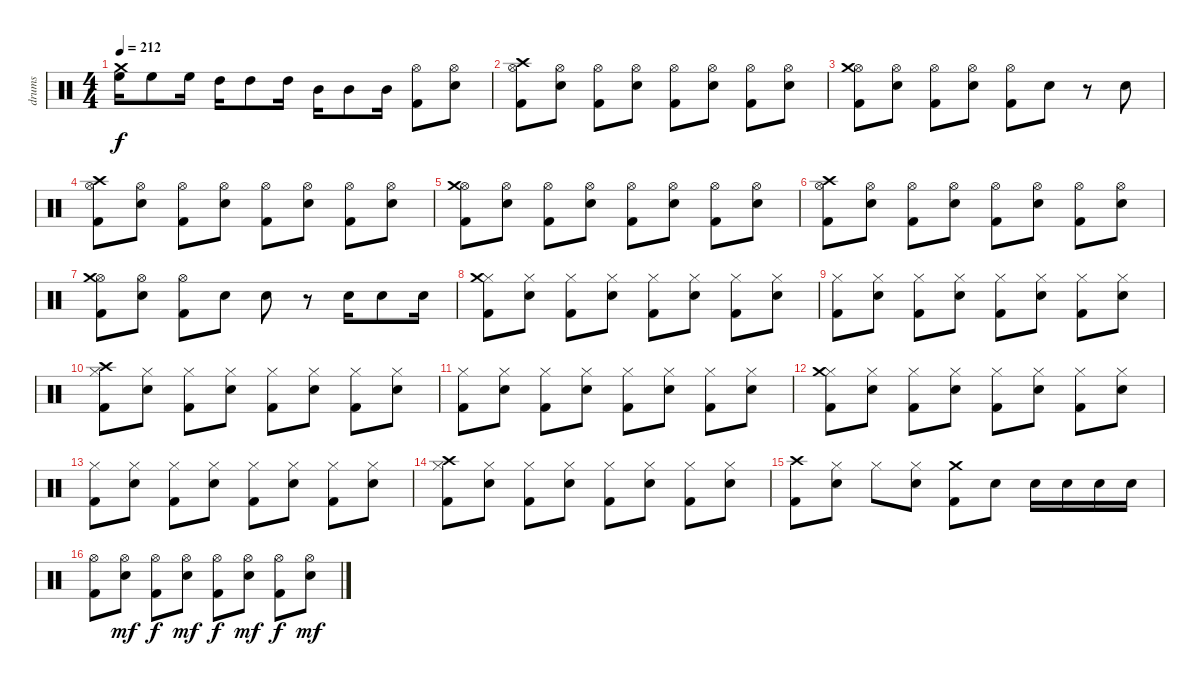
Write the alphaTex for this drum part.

\track ("drums" "drums") {instrument percussion}
\staff {score}
\articulation defaults
\ts (4 4)
\tempo 212
\clef neutral
\ks c
("High Floor Tom (hit)" "Crash medium (hit)").16{dy f} "High Floor Tom (hit)".8 "High Floor Tom (hit)".16 "High Tom (hit)".16 "High Tom (hit)".8 "High Tom (hit)".16 "Mid Tom (hit)".16 "Mid Tom (hit)".8 "Mid Tom (hit)".16 ("Kick (hit) 2" "Hi-Hat (open)").8 ("Snare (hit) 2" "Hi-Hat (open)").8 |
("Kick (hit) 2" "Hi-Hat (open)" "Crash high (hit)").8 ("Snare (hit) 2" "Hi-Hat (open)").8 ("Kick (hit) 2" "Hi-Hat (open)").8 ("Snare (hit) 2" "Hi-Hat (open)").8 ("Kick (hit) 2" "Hi-Hat (open)").8 ("Snare (hit) 2" "Hi-Hat (open)").8 ("Kick (hit) 2" "Hi-Hat (open)").8 ("Snare (hit) 2" "Hi-Hat (open)").8 |
("Kick (hit) 2" "Hi-Hat (open)" "Crash medium (hit)").8 ("Snare (hit) 2" "Hi-Hat (open)").8 ("Kick (hit) 2" "Hi-Hat (open)").8 ("Snare (hit) 2" "Hi-Hat (open)").8 ("Kick (hit) 2" "Hi-Hat (open)").8 "Snare (hit) 2".8 r.8 "Snare (hit) 2".8 |
("Kick (hit) 2" "Hi-Hat (open)" "Crash high (hit)").8 ("Snare (hit) 2" "Hi-Hat (open)").8 ("Kick (hit) 2" "Hi-Hat (open)").8 ("Snare (hit) 2" "Hi-Hat (open)").8 ("Kick (hit) 2" "Hi-Hat (open)").8 ("Snare (hit) 2" "Hi-Hat (open)").8 ("Kick (hit) 2" "Hi-Hat (open)").8 ("Snare (hit) 2" "Hi-Hat (open)").8 |
("Kick (hit) 2" "Hi-Hat (open)" "Crash medium (hit)").8 ("Snare (hit) 2" "Hi-Hat (open)").8 ("Kick (hit) 2" "Hi-Hat (open)").8 ("Snare (hit) 2" "Hi-Hat (open)").8 ("Kick (hit) 2" "Hi-Hat (open)").8 ("Snare (hit) 2" "Hi-Hat (open)").8 ("Kick (hit) 2" "Hi-Hat (open)").8 ("Snare (hit) 2" "Hi-Hat (open)").8 |
("Kick (hit) 2" "Hi-Hat (open)" "Crash high (hit)").8 ("Snare (hit) 2" "Hi-Hat (open)").8 ("Kick (hit) 2" "Hi-Hat (open)").8 ("Snare (hit) 2" "Hi-Hat (open)").8 ("Kick (hit) 2" "Hi-Hat (open)").8 ("Snare (hit) 2" "Hi-Hat (open)").8 ("Kick (hit) 2" "Hi-Hat (open)").8 ("Snare (hit) 2" "Hi-Hat (open)").8 |
("Kick (hit) 2" "Hi-Hat (open)" "Crash medium (hit)").8 ("Snare (hit) 2" "Hi-Hat (open)").8 ("Kick (hit) 2" "Hi-Hat (open)").8 "Snare (hit) 2".8 "Snare (hit) 2".8 r.8 "Snare (hit) 2".16 "Snare (hit) 2".8 "Snare (hit) 2".16 |
("Kick (hit) 2" "Hi-Hat (closed)" "Crash medium (hit)").8 ("Snare (hit) 2" "Hi-Hat (closed)").8 ("Kick (hit) 2" "Hi-Hat (closed)").8 ("Snare (hit) 2" "Hi-Hat (closed)").8 ("Kick (hit) 2" "Hi-Hat (closed)").8 ("Snare (hit) 2" "Hi-Hat (closed)").8 ("Kick (hit) 2" "Hi-Hat (closed)").8 ("Snare (hit) 2" "Hi-Hat (closed)").8 |
("Kick (hit) 2" "Hi-Hat (closed)").8 ("Snare (hit) 2" "Hi-Hat (closed)").8 ("Kick (hit) 2" "Hi-Hat (closed)").8 ("Snare (hit) 2" "Hi-Hat (closed)").8 ("Kick (hit) 2" "Hi-Hat (closed)").8 ("Snare (hit) 2" "Hi-Hat (closed)").8 ("Kick (hit) 2" "Hi-Hat (closed)").8 ("Snare (hit) 2" "Hi-Hat (closed)").8 |
("Kick (hit) 2" "Hi-Hat (closed)" "Crash high (hit)").8 ("Snare (hit) 2" "Hi-Hat (closed)").8 ("Kick (hit) 2" "Hi-Hat (closed)").8 ("Snare (hit) 2" "Hi-Hat (closed)").8 ("Kick (hit) 2" "Hi-Hat (closed)").8 ("Snare (hit) 2" "Hi-Hat (closed)").8 ("Kick (hit) 2" "Hi-Hat (closed)").8 ("Snare (hit) 2" "Hi-Hat (closed)").8 |
("Kick (hit) 2" "Hi-Hat (closed)").8 ("Snare (hit) 2" "Hi-Hat (closed)").8 ("Kick (hit) 2" "Hi-Hat (closed)").8 ("Snare (hit) 2" "Hi-Hat (closed)").8 ("Kick (hit) 2" "Hi-Hat (closed)").8 ("Snare (hit) 2" "Hi-Hat (closed)").8 ("Kick (hit) 2" "Hi-Hat (closed)").8 ("Snare (hit) 2" "Hi-Hat (closed)").8 |
("Kick (hit) 2" "Hi-Hat (closed)" "Crash medium (hit)").8 ("Snare (hit) 2" "Hi-Hat (closed)").8 ("Kick (hit) 2" "Hi-Hat (closed)").8 ("Snare (hit) 2" "Hi-Hat (closed)").8 ("Kick (hit) 2" "Hi-Hat (closed)").8 ("Snare (hit) 2" "Hi-Hat (closed)").8 ("Kick (hit) 2" "Hi-Hat (closed)").8 ("Snare (hit) 2" "Hi-Hat (closed)").8 |
("Kick (hit) 2" "Hi-Hat (closed)").8 ("Snare (hit) 2" "Hi-Hat (closed)").8 ("Kick (hit) 2" "Hi-Hat (closed)").8 ("Snare (hit) 2" "Hi-Hat (closed)").8 ("Kick (hit) 2" "Hi-Hat (closed)").8 ("Snare (hit) 2" "Hi-Hat (closed)").8 ("Kick (hit) 2" "Hi-Hat (closed)").8 ("Snare (hit) 2" "Hi-Hat (closed)").8 |
("Kick (hit) 2" "Hi-Hat (closed)" "Crash high (hit)").8 ("Snare (hit) 2" "Hi-Hat (closed)").8 ("Kick (hit) 2" "Hi-Hat (closed)").8 ("Snare (hit) 2" "Hi-Hat (closed)").8 ("Kick (hit) 2" "Hi-Hat (closed)").8 ("Snare (hit) 2" "Hi-Hat (closed)").8 ("Kick (hit) 2" "Hi-Hat (closed)").8 ("Snare (hit) 2" "Hi-Hat (closed)").8 |
("Kick (hit) 2" "Crash high (hit)").8 ("Snare (hit) 2" "Hi-Hat (closed)").8 "Hi-Hat (closed)".8 ("Snare (hit) 2" "Hi-Hat (closed)").8 ("Kick (hit) 2" "Crash medium (hit)").8 "Snare (hit) 2".8 "Snare (hit) 2".16 "Snare (hit) 2".16 "Snare (hit) 2".16 "Snare (hit) 2".16 |
("Kick (hit) 2" "Hi-Hat (open)").8 ("Snare (hit) 2" "Hi-Hat (open)").8{dy mf} ("Kick (hit) 2" "Hi-Hat (open)").8{dy f} ("Snare (hit) 2" "Hi-Hat (open)").8{dy mf} ("Kick (hit) 2" "Hi-Hat (open)").8{dy f} ("Snare (hit) 2" "Hi-Hat (open)").8{dy mf} ("Kick (hit) 2" "Hi-Hat (open)").8{dy f} ("Snare (hit) 2" "Hi-Hat (open)").8{dy mf}
